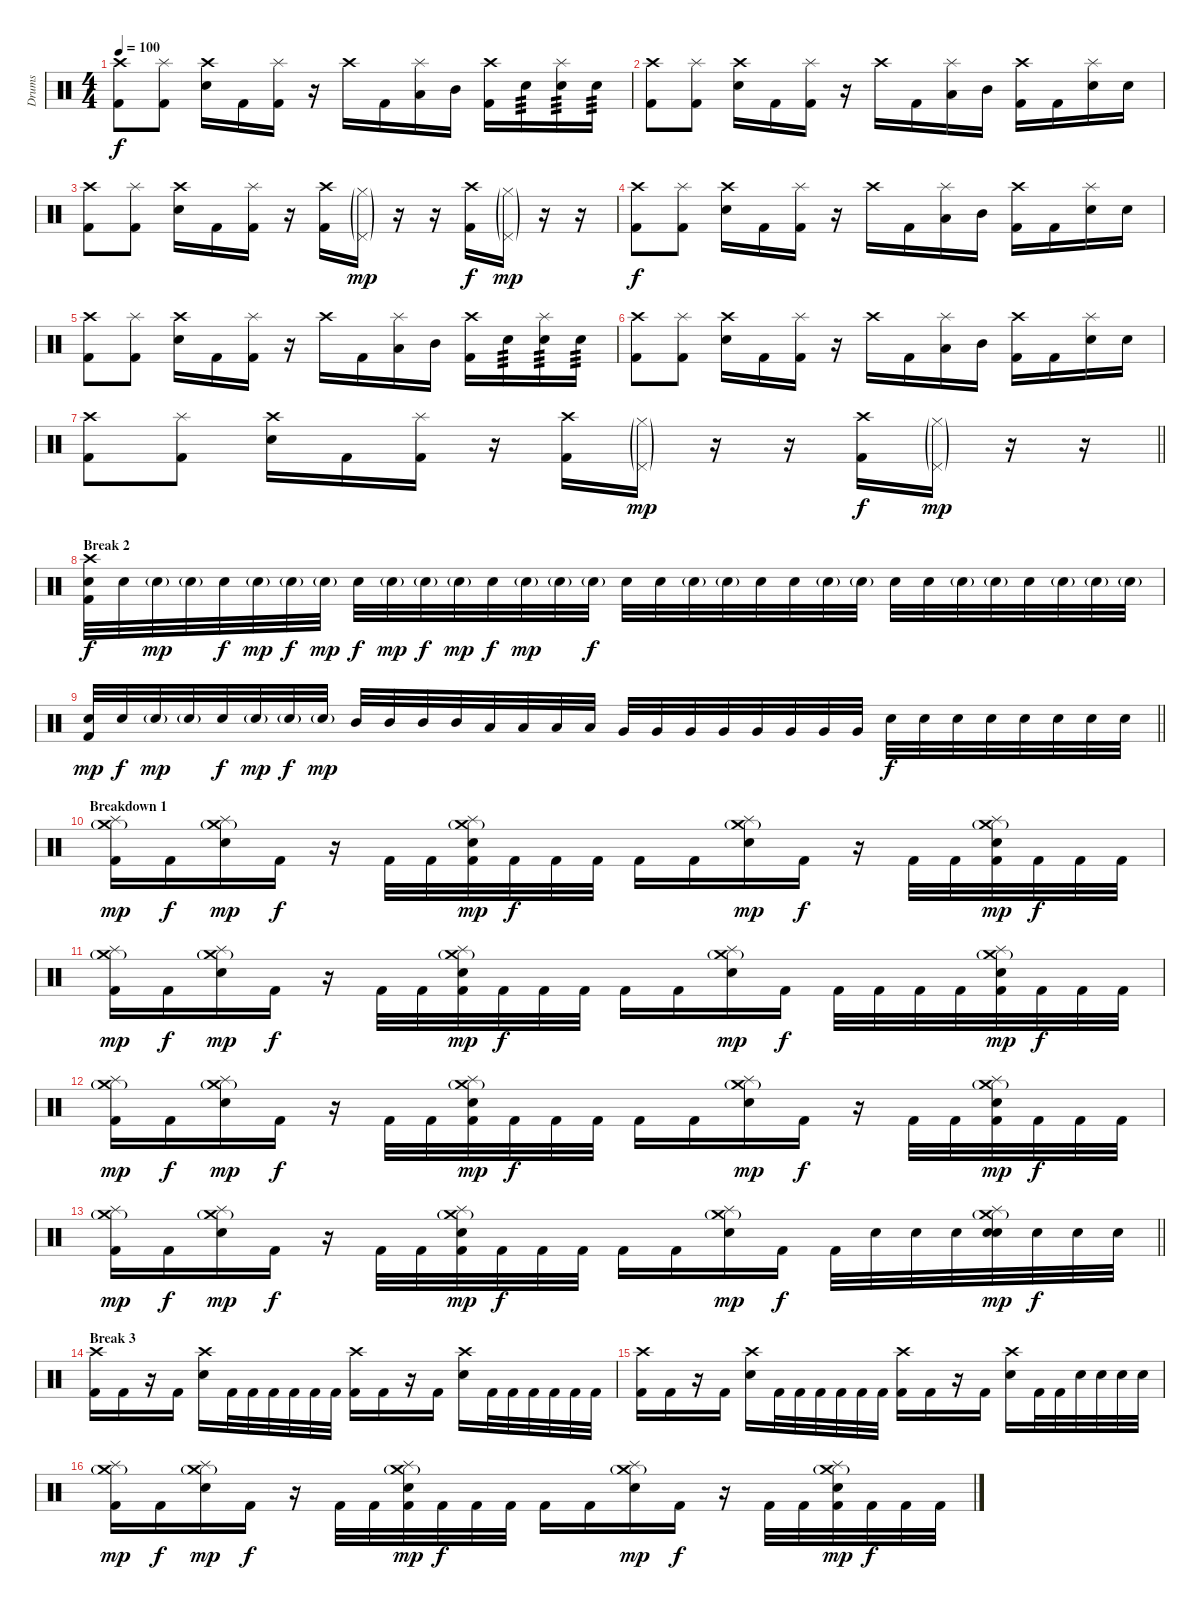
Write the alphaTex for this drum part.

\track ("Drums" "Drums") {instrument percussion}
\staff {score}
\articulation defaults
\ts (4 4)
\tempo 100
\clef neutral
\ks c
("Crash high (hit)" "Kick (hit) 2").8{dy f} ("Splash (hit)" "Kick (hit) 2").8 ("Crash high (hit)" "Electric Snare (hit)").16 "Kick (hit) 2".16 ("Splash (hit)" "Kick (hit) 2").16 r.16 "Crash high (hit)".16 "Kick (hit) 2".16 ("Splash (hit)" "Low Tom (hit)").16 "Mid Tom (hit)".16 ("Crash high (hit)" "Kick (hit) 2").16 "Electric Snare (hit)".16{tp 3} ("Splash (hit)" "Electric Snare (hit)").16{tp 3} "Electric Snare (hit)".16{tp 3} |
("Crash high (hit)" "Kick (hit) 2").8 ("Splash (hit)" "Kick (hit) 2").8 ("Crash high (hit)" "Electric Snare (hit)").16 "Kick (hit) 2".16 ("Splash (hit)" "Kick (hit) 2").16 r.16 "Crash high (hit)".16 "Kick (hit) 2".16 ("Splash (hit)" "Low Tom (hit)").16 "Mid Tom (hit)".16 ("Crash high (hit)" "Kick (hit) 2").16 "Kick (hit) 2".16 ("Splash (hit)" "Electric Snare (hit)").16 "Electric Snare (hit)".16 |
("Crash high (hit)" "Kick (hit) 2").8 ("Splash (hit)" "Kick (hit) 2").8 ("Crash high (hit)" "Electric Snare (hit)").16 "Kick (hit) 2".16 ("Splash (hit)" "Kick (hit) 2").16 r.16 ("Kick (hit) 2" "Crash high (hit)").16 ("Hi-Hat (closed)"{g} "Pedal Hi-Hat (hit)"{g}).16{dy mp} r.16 r.16 ("Crash high (hit)" "Kick (hit) 2").16{dy f} ("Hi-Hat (closed)"{g} "Pedal Hi-Hat (hit)"{g}).16{dy mp} r.16 r.16 |
("Crash high (hit)" "Kick (hit) 2").8{dy f} ("Splash (hit)" "Kick (hit) 2").8 ("Crash high (hit)" "Electric Snare (hit)").16 "Kick (hit) 2".16 ("Splash (hit)" "Kick (hit) 2").16 r.16 "Crash high (hit)".16 "Kick (hit) 2".16 ("Splash (hit)" "Low Tom (hit)").16 "Mid Tom (hit)".16 ("Crash high (hit)" "Kick (hit) 2").16 "Kick (hit) 2".16 ("Splash (hit)" "Electric Snare (hit)").16 "Electric Snare (hit)".16 |
("Crash high (hit)" "Kick (hit) 2").8 ("Splash (hit)" "Kick (hit) 2").8 ("Crash high (hit)" "Electric Snare (hit)").16 "Kick (hit) 2".16 ("Splash (hit)" "Kick (hit) 2").16 r.16 "Crash high (hit)".16 "Kick (hit) 2".16 ("Splash (hit)" "Low Tom (hit)").16 "Mid Tom (hit)".16 ("Crash high (hit)" "Kick (hit) 2").16 "Electric Snare (hit)".16{tp 3} ("Splash (hit)" "Electric Snare (hit)").16{tp 3} "Electric Snare (hit)".16{tp 3} |
("Crash high (hit)" "Kick (hit) 2").8 ("Splash (hit)" "Kick (hit) 2").8 ("Crash high (hit)" "Electric Snare (hit)").16 "Kick (hit) 2".16 ("Splash (hit)" "Kick (hit) 2").16 r.16 "Crash high (hit)".16 "Kick (hit) 2".16 ("Splash (hit)" "Low Tom (hit)").16 "Mid Tom (hit)".16 ("Crash high (hit)" "Kick (hit) 2").16 "Kick (hit) 2".16 ("Splash (hit)" "Electric Snare (hit)").16 "Electric Snare (hit)".16 |
\barLineRight lightlight
("Crash high (hit)" "Kick (hit) 2").8 ("Splash (hit)" "Kick (hit) 2").8 ("Crash high (hit)" "Electric Snare (hit)").16 "Kick (hit) 2".16 ("Splash (hit)" "Kick (hit) 2").16 r.16 ("Kick (hit) 2" "Crash high (hit)").16 ("Hi-Hat (closed)"{g} "Pedal Hi-Hat (hit)"{g}).16{dy mp} r.16 r.16 ("Crash high (hit)" "Kick (hit) 2").16{dy f} ("Hi-Hat (closed)"{g} "Pedal Hi-Hat (hit)"{g}).16{dy mp} r.16 r.16 |
\section ("" "Break 2")
("Electric Snare (hit)" "Kick (hit) 2" "Crash high (hit)").32{dy f} "Electric Snare (hit)".32 "Electric Snare (hit)"{g}.32{dy mp} "Electric Snare (hit)"{g}.32 "Electric Snare (hit)".32{dy f} "Electric Snare (hit)"{g}.32{dy mp} "Electric Snare (hit)"{g}.32{dy f} "Electric Snare (hit)"{g}.32{dy mp} "Electric Snare (hit)".32{dy f} "Electric Snare (hit)"{g}.32{dy mp} "Electric Snare (hit)"{g}.32{dy f} "Electric Snare (hit)"{g}.32{dy mp} "Electric Snare (hit)".32{dy f} "Electric Snare (hit)"{g}.32{dy mp} "Electric Snare (hit)"{g}.32 "Electric Snare (hit)"{g}.32{dy f} "Electric Snare (hit)".32 "Electric Snare (hit)".32 "Electric Snare (hit)"{g}.32 "Electric Snare (hit)"{g}.32 "Electric Snare (hit)".32 "Electric Snare (hit)".32 "Electric Snare (hit)"{g}.32 "Electric Snare (hit)"{g}.32 "Electric Snare (hit)".32 "Electric Snare (hit)".32 "Electric Snare (hit)"{g}.32 "Electric Snare (hit)"{g}.32 "Electric Snare (hit)".32 "Electric Snare (hit)"{g}.32 "Electric Snare (hit)"{g}.32 "Electric Snare (hit)"{g}.32 |
\barLineRight lightlight
("Electric Snare (hit)" "Kick (hit) 2").32{dy mp} "Electric Snare (hit)".32{dy f} "Electric Snare (hit)"{g}.32{dy mp} "Electric Snare (hit)"{g}.32 "Electric Snare (hit)".32{dy f} "Electric Snare (hit)"{g}.32{dy mp} "Electric Snare (hit)"{g}.32{dy f} "Electric Snare (hit)"{g}.32{dy mp} "Mid Tom (hit)".32 "Mid Tom (hit)".32 "Mid Tom (hit)".32 "Mid Tom (hit)".32 "Low Tom (hit)".32 "Low Tom (hit)".32 "Low Tom (hit)".32 "Low Tom (hit)".32 "Very Low Tom (hit)".32 "Very Low Tom (hit)".32 "Very Low Tom (hit)".32 "Very Low Tom (hit)".32 "Very Low Tom (hit)".32 "Very Low Tom (hit)".32 "Very Low Tom (hit)".32 "Very Low Tom (hit)".32 "Electric Snare (hit)".32{dy f} "Electric Snare (hit)".32 "Electric Snare (hit)".32 "Electric Snare (hit)".32 "Electric Snare (hit)".32 "Electric Snare (hit)".32 "Electric Snare (hit)".32 "Electric Snare (hit)".32 |
\section ("" "Breakdown 1")
("Crash medium (hit)"{g} "Splash (hit)" "Kick (hit) 2").16{dy mp} "Kick (hit) 2".16{dy f} ("Crash medium (hit)"{g} "Splash (hit)" "Electric Snare (hit)").16{dy mp} "Kick (hit) 2".16{dy f} r.16 "Kick (hit) 2".32 "Kick (hit) 2".32 ("Crash medium (hit)"{g} "Splash (hit)" "Electric Snare (hit)" "Kick (hit) 2").32{dy mp} "Kick (hit) 2".32{dy f} "Kick (hit) 2".32 "Kick (hit) 2".32 "Kick (hit) 2".16 "Kick (hit) 2".16 ("Crash medium (hit)"{g} "Splash (hit)" "Electric Snare (hit)").16{dy mp} "Kick (hit) 2".16{dy f} r.16 "Kick (hit) 2".32 "Kick (hit) 2".32 ("Crash medium (hit)"{g} "Splash (hit)" "Electric Snare (hit)" "Kick (hit) 2").32{dy mp} "Kick (hit) 2".32{dy f} "Kick (hit) 2".32 "Kick (hit) 2".32 |
("Crash medium (hit)"{g} "Splash (hit)" "Kick (hit) 2").16{dy mp} "Kick (hit) 2".16{dy f} ("Crash medium (hit)"{g} "Splash (hit)" "Electric Snare (hit)").16{dy mp} "Kick (hit) 2".16{dy f} r.16 "Kick (hit) 2".32 "Kick (hit) 2".32 ("Crash medium (hit)"{g} "Splash (hit)" "Electric Snare (hit)" "Kick (hit) 2").32{dy mp} "Kick (hit) 2".32{dy f} "Kick (hit) 2".32 "Kick (hit) 2".32 "Kick (hit) 2".16 "Kick (hit) 2".16 ("Crash medium (hit)"{g} "Splash (hit)" "Electric Snare (hit)").16{dy mp} "Kick (hit) 2".16{dy f} "Kick (hit) 2".32 "Kick (hit) 2".32 "Kick (hit) 2".32 "Kick (hit) 2".32 ("Crash medium (hit)"{g} "Splash (hit)" "Electric Snare (hit)" "Kick (hit) 2").32{dy mp} "Kick (hit) 2".32{dy f} "Kick (hit) 2".32 "Kick (hit) 2".32 |
("Crash medium (hit)"{g} "Splash (hit)" "Kick (hit) 2").16{dy mp} "Kick (hit) 2".16{dy f} ("Crash medium (hit)"{g} "Splash (hit)" "Electric Snare (hit)").16{dy mp} "Kick (hit) 2".16{dy f} r.16 "Kick (hit) 2".32 "Kick (hit) 2".32 ("Crash medium (hit)"{g} "Splash (hit)" "Electric Snare (hit)" "Kick (hit) 2").32{dy mp} "Kick (hit) 2".32{dy f} "Kick (hit) 2".32 "Kick (hit) 2".32 "Kick (hit) 2".16 "Kick (hit) 2".16 ("Crash medium (hit)"{g} "Splash (hit)" "Electric Snare (hit)").16{dy mp} "Kick (hit) 2".16{dy f} r.16 "Kick (hit) 2".32 "Kick (hit) 2".32 ("Crash medium (hit)"{g} "Splash (hit)" "Electric Snare (hit)" "Kick (hit) 2").32{dy mp} "Kick (hit) 2".32{dy f} "Kick (hit) 2".32 "Kick (hit) 2".32 |
\barLineRight lightlight
("Crash medium (hit)"{g} "Splash (hit)" "Kick (hit) 2").16{dy mp} "Kick (hit) 2".16{dy f} ("Crash medium (hit)"{g} "Splash (hit)" "Electric Snare (hit)").16{dy mp} "Kick (hit) 2".16{dy f} r.16 "Kick (hit) 2".32 "Kick (hit) 2".32 ("Crash medium (hit)"{g} "Splash (hit)" "Electric Snare (hit)" "Kick (hit) 2").32{dy mp} "Kick (hit) 2".32{dy f} "Kick (hit) 2".32 "Kick (hit) 2".32 "Kick (hit) 2".16 "Kick (hit) 2".16 ("Crash medium (hit)"{g} "Splash (hit)" "Electric Snare (hit)").16{dy mp} "Kick (hit) 2".16{dy f} "Kick (hit) 2".32 "Electric Snare (hit)".32 "Electric Snare (hit)".32 "Electric Snare (hit)".32 ("Crash medium (hit)"{g} "Splash (hit)" "Electric Snare (hit)" "Electric Snare (hit)").32{dy mp} "Electric Snare (hit)".32{dy f} "Electric Snare (hit)".32 "Electric Snare (hit)".32 |
\section ("" "Break 3")
("Crash high (hit)" "Kick (hit) 2").16 "Kick (hit) 2".16 r.16 "Kick (hit) 2".16 ("Electric Snare (hit)" "Crash high (hit)").16 "Kick (hit) 2".32 "Kick (hit) 2".32 "Kick (hit) 2".32 "Kick (hit) 2".32 "Kick (hit) 2".32 "Kick (hit) 2".32 ("Crash high (hit)" "Kick (hit) 2").16 "Kick (hit) 2".16 r.16 "Kick (hit) 2".16 ("Electric Snare (hit)" "Crash high (hit)").16 "Kick (hit) 2".32 "Kick (hit) 2".32 "Kick (hit) 2".32 "Kick (hit) 2".32 "Kick (hit) 2".32 "Kick (hit) 2".32 |
("Crash high (hit)" "Kick (hit) 2").16 "Kick (hit) 2".16 r.16 "Kick (hit) 2".16 ("Electric Snare (hit)" "Crash high (hit)").16 "Kick (hit) 2".32 "Kick (hit) 2".32 "Kick (hit) 2".32 "Kick (hit) 2".32 "Kick (hit) 2".32 "Kick (hit) 2".32 ("Crash high (hit)" "Kick (hit) 2").16 "Kick (hit) 2".16 r.16 "Kick (hit) 2".16 ("Electric Snare (hit)" "Crash high (hit)").16 "Kick (hit) 2".32 "Kick (hit) 2".32 "Electric Snare (hit)".32 "Electric Snare (hit)".32 "Electric Snare (hit)".32 "Electric Snare (hit)".32 |
("Crash medium (hit)"{g} "Splash (hit)" "Kick (hit) 2").16{dy mp} "Kick (hit) 2".16{dy f} ("Crash medium (hit)"{g} "Splash (hit)" "Electric Snare (hit)").16{dy mp} "Kick (hit) 2".16{dy f} r.16 "Kick (hit) 2".32 "Kick (hit) 2".32 ("Crash medium (hit)"{g} "Splash (hit)" "Electric Snare (hit)" "Kick (hit) 2").32{dy mp} "Kick (hit) 2".32{dy f} "Kick (hit) 2".32 "Kick (hit) 2".32 "Kick (hit) 2".16 "Kick (hit) 2".16 ("Crash medium (hit)"{g} "Splash (hit)" "Electric Snare (hit)").16{dy mp} "Kick (hit) 2".16{dy f} r.16 "Kick (hit) 2".32 "Kick (hit) 2".32 ("Crash medium (hit)"{g} "Splash (hit)" "Electric Snare (hit)" "Kick (hit) 2").32{dy mp} "Kick (hit) 2".32{dy f} "Kick (hit) 2".32 "Kick (hit) 2".32
